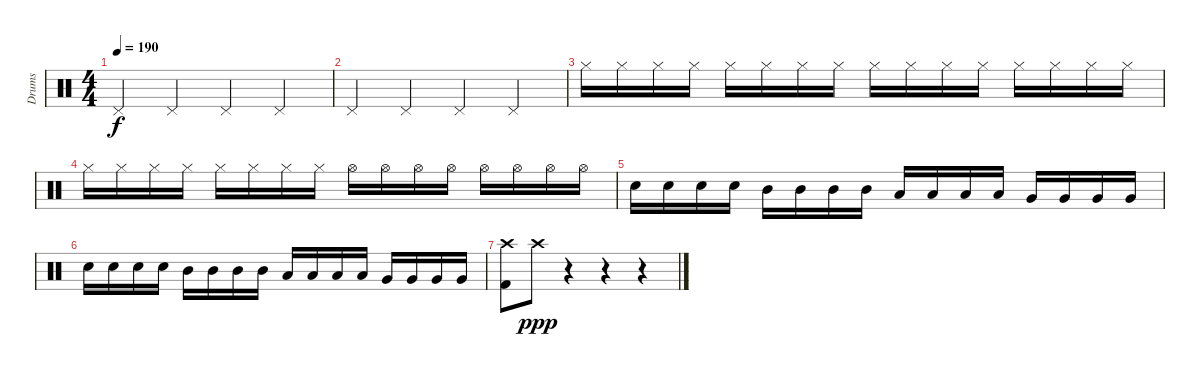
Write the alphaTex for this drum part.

\track ("Drums" "Drums") {instrument percussion}
\staff {score}
\articulation defaults
\ts (4 4)
\tempo 190
\clef neutral
\ks c "Pedal Hi-Hat (hit)".4{dy f} "Pedal Hi-Hat (hit)".4 "Pedal Hi-Hat (hit)".4 "Pedal Hi-Hat (hit)".4
|
"Pedal Hi-Hat (hit)".4 "Pedal Hi-Hat (hit)".4 "Pedal Hi-Hat (hit)".4 "Pedal Hi-Hat (hit)".4 |
"Hi-Hat (closed)".16 "Hi-Hat (closed)".16 "Hi-Hat (closed)".16 "Hi-Hat (closed)".16 "Hi-Hat (closed)".16 "Hi-Hat (closed)".16 "Hi-Hat (closed)".16 "Hi-Hat (closed)".16 "Hi-Hat (closed)".16 "Hi-Hat (closed)".16 "Hi-Hat (closed)".16 "Hi-Hat (closed)".16 "Hi-Hat (closed)".16 "Hi-Hat (closed)".16 "Hi-Hat (closed)".16 "Hi-Hat (closed)".16 |
"Hi-Hat (closed)".16 "Hi-Hat (closed)".16 "Hi-Hat (closed)".16 "Hi-Hat (closed)".16 "Hi-Hat (closed)".16 "Hi-Hat (closed)".16 "Hi-Hat (closed)".16 "Hi-Hat (closed)".16 "Hi-Hat (open)".16 "Hi-Hat (open)".16 "Hi-Hat (open)".16 "Hi-Hat (open)".16 "Hi-Hat (open)".16 "Hi-Hat (open)".16 "Hi-Hat (open)".16 "Hi-Hat (open)".16 |
"Electric Snare (hit)".16 "Electric Snare (hit)".16 "Electric Snare (hit)".16 "Electric Snare (hit)".16 "Mid Tom (hit)".16 "Mid Tom (hit)".16 "Mid Tom (hit)".16 "Mid Tom (hit)".16 "Low Tom (hit)".16 "Low Tom (hit)".16 "Low Tom (hit)".16 "Low Tom (hit)".16 "Very Low Tom (hit)".16 "Very Low Tom (hit)".16 "Very Low Tom (hit)".16 "Very Low Tom (hit)".16 |
"Electric Snare (hit)".16 "Electric Snare (hit)".16 "Electric Snare (hit)".16 "Electric Snare (hit)".16 "Mid Tom (hit)".16 "Mid Tom (hit)".16 "Mid Tom (hit)".16 "Mid Tom (hit)".16 "Low Tom (hit)".16 "Low Tom (hit)".16 "Low Tom (hit)".16 "Low Tom (hit)".16 "Very Low Tom (hit)".16 "Very Low Tom (hit)".16 "Very Low Tom (hit)".16 "Very Low Tom (hit)".16 |
("Crash high (hit)" "Kick (hit) 2").8 "Crash high (hit)".8{dy ppp} r.4 r.4 r.4
